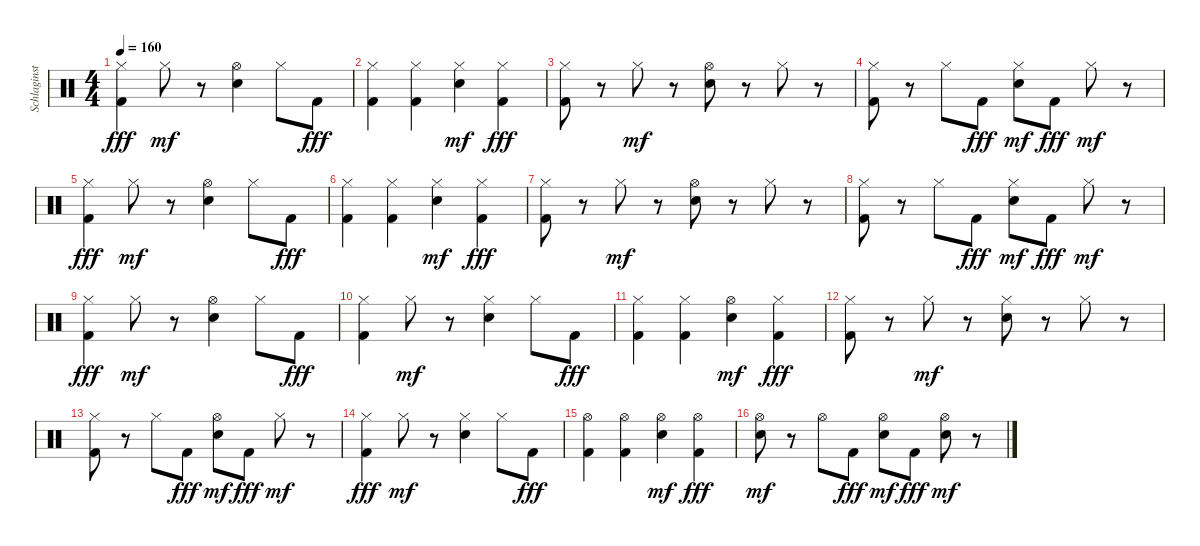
\track ("Schlaginstrumente - Auswahl" "Schlaginst") {instrument percussion}
\staff {score}
\articulation defaults
\ts (4 4)
\tempo 160
\clef neutral
\ks c
("Hi-Hat (closed)" "Kick (hit) 2").4{dy fff} "Hi-Hat (closed)".8{dy mf} r.8 ("Hi-Hat (open)" "Electric Snare (hit)").4 "Hi-Hat (closed)".8 "Kick (hit) 2".8{dy fff} |
("Hi-Hat (closed)" "Kick (hit) 2").4 ("Hi-Hat (closed)" "Kick (hit) 2").4 ("Hi-Hat (closed)" "Electric Snare (hit)").4{dy mf} ("Hi-Hat (closed)" "Kick (hit) 2").4{dy fff} |
("Hi-Hat (closed)" "Kick (hit) 2").8 r.8 "Hi-Hat (closed)".8{dy mf} r.8 ("Hi-Hat (open)" "Electric Snare (hit)").8 r.8 "Hi-Hat (closed)".8 r.8 |
("Hi-Hat (closed)" "Kick (hit) 2").8 r.8 "Hi-Hat (closed)".8 "Kick (hit) 2".8{dy fff} ("Hi-Hat (closed)" "Electric Snare (hit)").8{dy mf} "Kick (hit) 2".8{dy fff} "Hi-Hat (closed)".8{dy mf} r.8 |
("Hi-Hat (closed)" "Kick (hit) 2").4{dy fff} "Hi-Hat (closed)".8{dy mf} r.8 ("Hi-Hat (open)" "Electric Snare (hit)").4 "Hi-Hat (closed)".8 "Kick (hit) 2".8{dy fff} |
("Hi-Hat (closed)" "Kick (hit) 2").4 ("Hi-Hat (closed)" "Kick (hit) 2").4 ("Hi-Hat (closed)" "Electric Snare (hit)").4{dy mf} ("Hi-Hat (closed)" "Kick (hit) 2").4{dy fff} |
("Hi-Hat (closed)" "Kick (hit) 2").8 r.8 "Hi-Hat (closed)".8{dy mf} r.8 ("Hi-Hat (open)" "Electric Snare (hit)").8 r.8 "Hi-Hat (closed)".8 r.8 |
("Hi-Hat (closed)" "Kick (hit) 2").8 r.8 "Hi-Hat (closed)".8 "Kick (hit) 2".8{dy fff} ("Hi-Hat (closed)" "Electric Snare (hit)").8{dy mf} "Kick (hit) 2".8{dy fff} "Hi-Hat (closed)".8{dy mf} r.8 |
("Hi-Hat (closed)" "Kick (hit) 2").4{dy fff} "Hi-Hat (closed)".8{dy mf} r.8 ("Hi-Hat (open)" "Electric Snare (hit)").4 "Hi-Hat (closed)".8 "Kick (hit) 2".8{dy fff} |
("Hi-Hat (closed)" "Kick (hit) 2").4 "Hi-Hat (closed)".8{dy mf} r.8 ("Hi-Hat (closed)" "Electric Snare (hit)").4 "Hi-Hat (closed)".8 "Kick (hit) 2".8{dy fff} |
("Hi-Hat (closed)" "Kick (hit) 2").4 ("Hi-Hat (closed)" "Kick (hit) 2").4 ("Hi-Hat (open)" "Electric Snare (hit)").4{dy mf} ("Hi-Hat (closed)" "Kick (hit) 2").4{dy fff} |
("Hi-Hat (closed)" "Kick (hit) 2").8 r.8 "Hi-Hat (closed)".8{dy mf} r.8 ("Hi-Hat (closed)" "Electric Snare (hit)").8 r.8 "Hi-Hat (closed)".8 r.8 |
("Hi-Hat (closed)" "Kick (hit) 2").8 r.8 "Hi-Hat (closed)".8 "Kick (hit) 2".8{dy fff} ("Hi-Hat (open)" "Electric Snare (hit)").8{dy mf} "Kick (hit) 2".8{dy fff} "Hi-Hat (closed)".8{dy mf} r.8 |
("Hi-Hat (closed)" "Kick (hit) 2").4{dy fff} "Hi-Hat (closed)".8{dy mf} r.8 ("Hi-Hat (closed)" "Electric Snare (hit)").4 "Hi-Hat (closed)".8 "Kick (hit) 2".8{dy fff} |
("Hi-Hat (open)" "Kick (hit) 2").4 ("Hi-Hat (open)" "Kick (hit) 2").4 ("Hi-Hat (open)" "Electric Snare (hit)").4{dy mf} ("Hi-Hat (open)" "Kick (hit) 2").4{dy fff} |
("Hi-Hat (open)" "Electric Snare (hit)").8{dy mf} r.8 "Hi-Hat (open)".8 "Kick (hit) 2".8{dy fff} ("Hi-Hat (open)" "Electric Snare (hit)").8{dy mf} "Kick (hit) 2".8{dy fff} ("Hi-Hat (open)" "Electric Snare (hit)").8{dy mf} r.8
